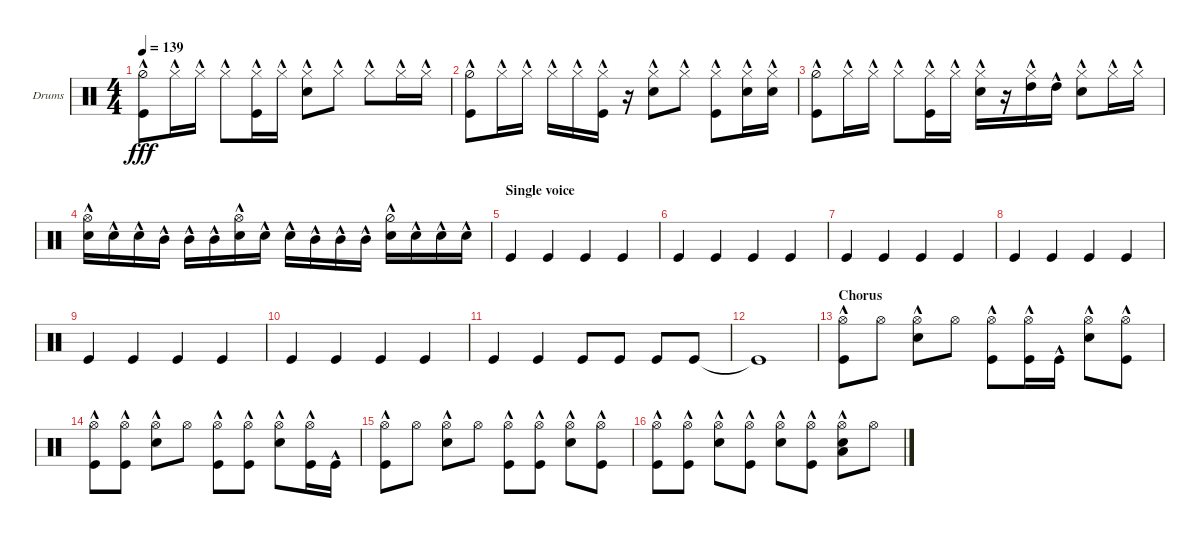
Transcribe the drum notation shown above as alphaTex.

\bracketExtendMode groupsimilarinstruments
\firstSystemTrackNameOrientation horizontal
\otherSystemsTrackNameOrientation horizontal
\track ("Drumkit" "Drums") {instrument percussion}
\staff {score}
\articulation defaults
\ts (4 4)
\tempo 139
\clef neutral
\ks c
("Kick (hit)"{hac} "Hi-Hat (half)"{hac}).8{dy fff} "Hi-Hat (closed)"{hac}.16 "Hi-Hat (closed)"{hac}.16 "Hi-Hat (closed)"{hac}.8 ("Kick (hit)"{hac} "Hi-Hat (closed)"{hac}).16 "Hi-Hat (closed)"{hac}.16 ("Hi-Hat (closed)"{hac} "Snare (hit) 2"{hac}).8 "Hi-Hat (closed)"{hac}.8 "Hi-Hat (closed)"{hac}.8 "Hi-Hat (closed)"{hac}.16 "Hi-Hat (closed)"{hac}.16 |
("Kick (hit)"{hac} "Hi-Hat (half)"{hac}).8 "Hi-Hat (closed)"{hac}.16 "Hi-Hat (closed)"{hac}.16 "Hi-Hat (closed)"{hac}.16 "Hi-Hat (closed)"{hac}.16 ("Kick (hit)"{hac} "Hi-Hat (closed)"{hac}).16 r.16 ("Hi-Hat (closed)"{hac} "Snare (hit) 2"{hac}).8 "Hi-Hat (closed)"{hac}.8 ("Hi-Hat (closed)"{hac} "Kick (hit)"{hac}).8 ("Hi-Hat (closed)"{hac} "Snare (hit) 2"{hac}).16 ("Hi-Hat (closed)"{hac} "Snare (hit) 2"{hac}).16 |
("Kick (hit)"{hac} "Hi-Hat (half)"{hac}).8 "Hi-Hat (closed)"{hac}.16 "Hi-Hat (closed)"{hac}.16 "Hi-Hat (closed)"{hac}.8 ("Kick (hit)"{hac} "Hi-Hat (closed)"{hac}).16 "Hi-Hat (closed)"{hac}.16 ("Hi-Hat (closed)"{hac} "Snare (hit) 2"{hac}).16 r.16 ("Hi-Hat (closed)"{hac} "High Tom (hit)"{hac}).16 "High Tom (hit)"{hac}.16 ("Hi-Hat (closed)"{hac} "Snare (hit) 2"{hac}).8 "Hi-Hat (closed)"{hac}.16 "Hi-Hat (closed)"{hac}.16 |
("Snare (hit) 2"{hac} "Hi-Hat (open)"{hac}).16 "Snare (hit) 2"{hac}.16 "Snare (hit) 2"{hac}.16 "Mid Tom (hit)"{hac}.16 "Mid Tom (hit)"{hac}.16 "Mid Tom (hit)"{hac}.16 ("Snare (hit) 2"{hac} "Hi-Hat (open)"{hac}).16 "Snare (hit) 2"{hac}.16 "Snare (hit) 2"{hac}.16 "Mid Tom (hit)"{hac}.16 "Mid Tom (hit)"{hac}.16 "Mid Tom (hit)"{hac}.16 ("Snare (hit) 2"{hac} "Hi-Hat (half)"{hac}).16 "Snare (hit) 2"{hac}.16 "Snare (hit) 2"{hac}.16 "Snare (hit) 2"{hac}.16 |
\section ("" "Single voice")
"Kick (hit)".4 "Kick (hit)".4 "Kick (hit)".4 "Kick (hit)".4 |
"Kick (hit)".4 "Kick (hit)".4 "Kick (hit)".4 "Kick (hit)".4 |
"Kick (hit)".4 "Kick (hit)".4 "Kick (hit)".4 "Kick (hit)".4 |
"Kick (hit)".4 "Kick (hit)".4 "Kick (hit)".4 "Kick (hit)".4 |
"Kick (hit)".4 "Kick (hit)".4 "Kick (hit)".4 "Kick (hit)".4 |
"Kick (hit)".4 "Kick (hit)".4 "Kick (hit)".4 "Kick (hit)".4 |
"Kick (hit)".4 "Kick (hit)".4 "Kick (hit)".8 "Kick (hit)".8 "Kick (hit)".8 "Kick (hit)".8 |
"Kick (hit)"{t}.1 |
\section ("" "Chorus")
("Hi-Hat (open)"{hac} "Kick (hit)"{hac}).8 "Hi-Hat (open)".8 ("Hi-Hat (open)"{hac} "Snare (hit) 2"{hac}).8 "Hi-Hat (open)".8 ("Hi-Hat (open)"{hac} "Kick (hit)"{hac}).8 ("Hi-Hat (open)" "Kick (hit)"{hac}).16 "Kick (hit)"{hac}.16 ("Hi-Hat (open)"{hac} "Snare (hit) 2"{hac}).8 ("Hi-Hat (open)" "Kick (hit)"{hac}).8 |
("Hi-Hat (open)"{hac} "Kick (hit)"{hac}).8 ("Hi-Hat (open)" "Kick (hit)"{hac}).8 ("Hi-Hat (open)"{hac} "Snare (hit) 2"{hac}).8 "Hi-Hat (open)".8 ("Hi-Hat (open)"{hac} "Kick (hit)"{hac}).8 ("Hi-Hat (open)" "Kick (hit)"{hac}).8 ("Hi-Hat (open)"{hac} "Snare (hit) 2"{hac}).8 ("Hi-Hat (open)" "Kick (hit)"{hac}).16 "Kick (hit)"{hac}.16 |
("Hi-Hat (open)"{hac} "Kick (hit)"{hac}).8 "Hi-Hat (open)".8 ("Hi-Hat (open)"{hac} "Snare (hit) 2"{hac}).8 "Hi-Hat (open)".8 ("Hi-Hat (open)"{hac} "Kick (hit)"{hac}).8 ("Hi-Hat (open)" "Kick (hit)"{hac}).8 ("Hi-Hat (open)"{hac} "Snare (hit) 2"{hac}).8 ("Hi-Hat (open)" "Kick (hit)"{hac}).8 |
("Hi-Hat (open)"{hac} "Kick (hit)"{hac}).8 ("Hi-Hat (open)" "Kick (hit)"{hac}).8 ("Hi-Hat (open)"{hac} "Snare (hit) 2"{hac}).8 ("Hi-Hat (open)" "Kick (hit)"{hac}).8 ("Hi-Hat (open)"{hac} "Snare (hit) 2"{hac}).8 ("Hi-Hat (open)" "Kick (hit)"{hac}).8 ("Hi-Hat (open)"{hac} "Snare (hit) 2"{hac} "Low Tom (hit)"{hac}).8 "Hi-Hat (open)".8
